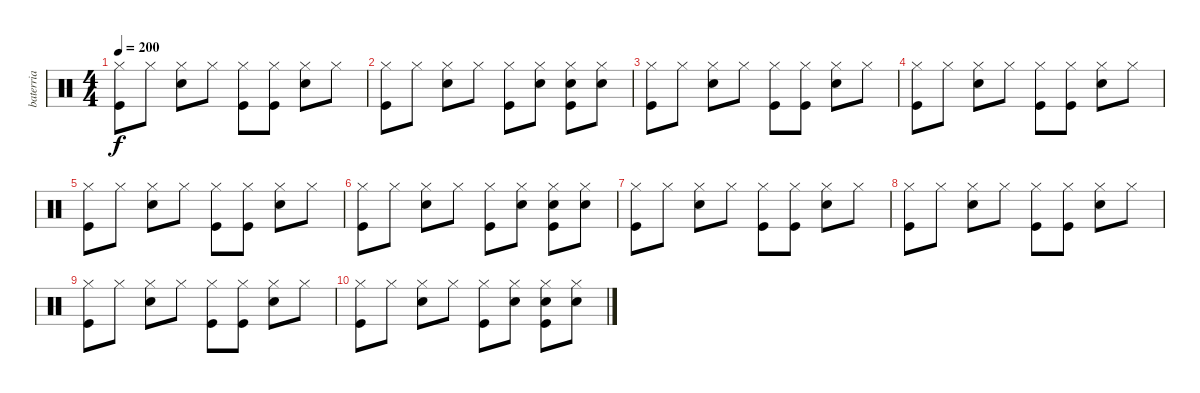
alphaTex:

\track ("baterria" "baterria") {instrument percussion}
\staff {score}
\articulation defaults
\ts (4 4)
\tempo 200
\clef neutral
\ks c
("Hi-Hat (closed)" "Kick (hit)").8{dy f} "Hi-Hat (closed)".8 ("Hi-Hat (closed)" "Electric Snare (hit)").8 "Hi-Hat (closed)".8 ("Hi-Hat (closed)" "Kick (hit)").8 ("Hi-Hat (closed)" "Kick (hit)").8 ("Hi-Hat (closed)" "Electric Snare (hit)").8 "Hi-Hat (closed)".8 |
("Hi-Hat (closed)" "Kick (hit)").8 "Hi-Hat (closed)".8 ("Hi-Hat (closed)" "Electric Snare (hit)").8 "Hi-Hat (closed)".8 ("Hi-Hat (closed)" "Kick (hit)").8 ("Hi-Hat (closed)" "Electric Snare (hit)").8 ("Hi-Hat (closed)" "Electric Snare (hit)" "Kick (hit)").8 ("Hi-Hat (closed)" "Electric Snare (hit)").8 |
("Hi-Hat (closed)" "Kick (hit)").8 "Hi-Hat (closed)".8 ("Hi-Hat (closed)" "Electric Snare (hit)").8 "Hi-Hat (closed)".8 ("Hi-Hat (closed)" "Kick (hit)").8 ("Hi-Hat (closed)" "Kick (hit)").8 ("Hi-Hat (closed)" "Electric Snare (hit)").8 "Hi-Hat (closed)".8 |
("Hi-Hat (closed)" "Kick (hit)").8 "Hi-Hat (closed)".8 ("Hi-Hat (closed)" "Electric Snare (hit)").8 "Hi-Hat (closed)".8 ("Hi-Hat (closed)" "Kick (hit)").8 ("Hi-Hat (closed)" "Kick (hit)").8 ("Hi-Hat (closed)" "Electric Snare (hit)").8 "Hi-Hat (closed)".8 |
("Hi-Hat (closed)" "Kick (hit)").8 "Hi-Hat (closed)".8 ("Hi-Hat (closed)" "Electric Snare (hit)").8 "Hi-Hat (closed)".8 ("Hi-Hat (closed)" "Kick (hit)").8 ("Hi-Hat (closed)" "Kick (hit)").8 ("Hi-Hat (closed)" "Electric Snare (hit)").8 "Hi-Hat (closed)".8 |
("Hi-Hat (closed)" "Kick (hit)").8 "Hi-Hat (closed)".8 ("Hi-Hat (closed)" "Electric Snare (hit)").8 "Hi-Hat (closed)".8 ("Hi-Hat (closed)" "Kick (hit)").8 ("Hi-Hat (closed)" "Electric Snare (hit)").8 ("Hi-Hat (closed)" "Electric Snare (hit)" "Kick (hit)").8 ("Hi-Hat (closed)" "Electric Snare (hit)").8 |
("Hi-Hat (closed)" "Kick (hit)").8 "Hi-Hat (closed)".8 ("Hi-Hat (closed)" "Electric Snare (hit)").8 "Hi-Hat (closed)".8 ("Hi-Hat (closed)" "Kick (hit)").8 ("Hi-Hat (closed)" "Kick (hit)").8 ("Hi-Hat (closed)" "Electric Snare (hit)").8 "Hi-Hat (closed)".8 |
("Hi-Hat (closed)" "Kick (hit)").8 "Hi-Hat (closed)".8 ("Hi-Hat (closed)" "Electric Snare (hit)").8 "Hi-Hat (closed)".8 ("Hi-Hat (closed)" "Kick (hit)").8 ("Hi-Hat (closed)" "Kick (hit)").8 ("Hi-Hat (closed)" "Electric Snare (hit)").8 "Hi-Hat (closed)".8 |
("Hi-Hat (closed)" "Kick (hit)").8 "Hi-Hat (closed)".8 ("Hi-Hat (closed)" "Electric Snare (hit)").8 "Hi-Hat (closed)".8 ("Hi-Hat (closed)" "Kick (hit)").8 ("Hi-Hat (closed)" "Kick (hit)").8 ("Hi-Hat (closed)" "Electric Snare (hit)").8 "Hi-Hat (closed)".8 |
("Hi-Hat (closed)" "Kick (hit)").8 "Hi-Hat (closed)".8 ("Hi-Hat (closed)" "Electric Snare (hit)").8 "Hi-Hat (closed)".8 ("Hi-Hat (closed)" "Kick (hit)").8 ("Hi-Hat (closed)" "Electric Snare (hit)").8 ("Hi-Hat (closed)" "Electric Snare (hit)" "Kick (hit)").8 ("Hi-Hat (closed)" "Electric Snare (hit)").8
